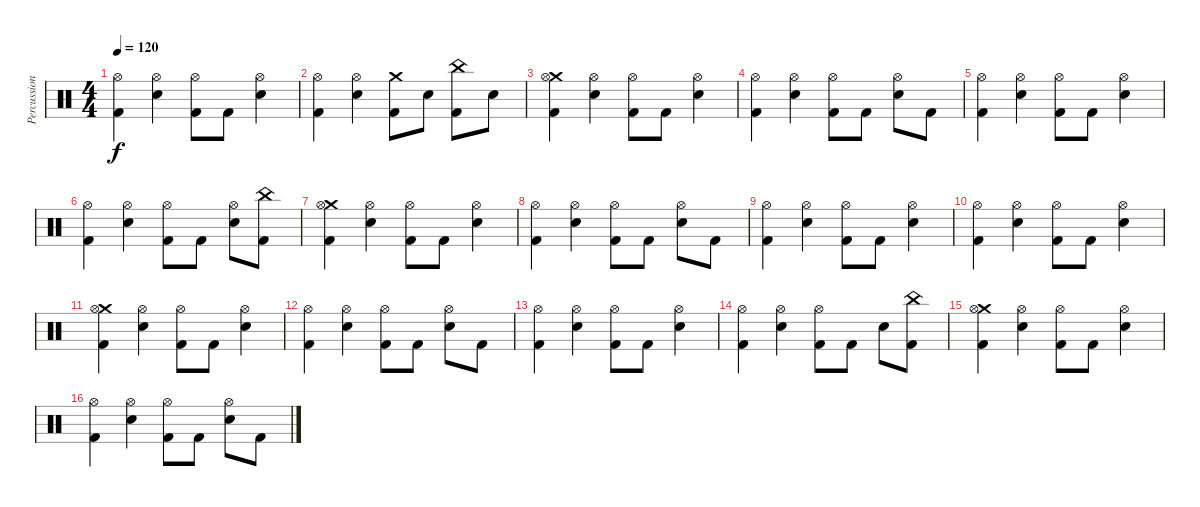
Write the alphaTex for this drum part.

\track ("Percussion" "Percussion") {instrument percussion}
\staff {score}
\articulation defaults
\ts (4 4)
\tempo 120
\clef neutral
\ks c
("Hi-Hat (open)" "Kick (hit) 2").4{dy f} ("Hi-Hat (open)" "Snare (hit) 2").4 ("Hi-Hat (open)" "Kick (hit) 2").8 "Kick (hit) 2".8 ("Hi-Hat (open)" "Snare (hit) 2").4 |
("Hi-Hat (open)" "Kick (hit) 2").4 ("Hi-Hat (open)" "Snare (hit) 2").4 ("Crash medium (hit)" "Kick (hit) 2").8 "Snare (hit) 2".8 ("China (hit)" "Kick (hit) 2").8 "Snare (hit) 2".8 |
("Crash medium (hit)" "Hi-Hat (open)" "Kick (hit) 2").4 ("Hi-Hat (open)" "Snare (hit) 2").4 ("Hi-Hat (open)" "Kick (hit) 2").8 "Kick (hit) 2".8 ("Hi-Hat (open)" "Snare (hit) 2").4 |
("Hi-Hat (open)" "Kick (hit) 2").4 ("Hi-Hat (open)" "Snare (hit) 2").4 ("Hi-Hat (open)" "Kick (hit) 2").8 "Kick (hit) 2".8 ("Hi-Hat (open)" "Snare (hit) 2").8 "Kick (hit) 2".8 |
("Hi-Hat (open)" "Kick (hit) 2").4 ("Hi-Hat (open)" "Snare (hit) 2").4 ("Hi-Hat (open)" "Kick (hit) 2").8 "Kick (hit) 2".8 ("Hi-Hat (open)" "Snare (hit) 2").4 |
("Hi-Hat (open)" "Kick (hit) 2").4 ("Hi-Hat (open)" "Snare (hit) 2").4 ("Hi-Hat (open)" "Kick (hit) 2").8 "Kick (hit) 2".8 ("Hi-Hat (open)" "Snare (hit) 2").8 ("China (hit)" "Kick (hit) 2").8 |
("Crash medium (hit)" "Hi-Hat (open)" "Kick (hit) 2").4 ("Hi-Hat (open)" "Snare (hit) 2").4 ("Hi-Hat (open)" "Kick (hit) 2").8 "Kick (hit) 2".8 ("Hi-Hat (open)" "Snare (hit) 2").4 |
("Hi-Hat (open)" "Kick (hit) 2").4 ("Hi-Hat (open)" "Snare (hit) 2").4 ("Hi-Hat (open)" "Kick (hit) 2").8 "Kick (hit) 2".8 ("Hi-Hat (open)" "Snare (hit) 2").8 "Kick (hit) 2".8 |
("Hi-Hat (open)" "Kick (hit) 2").4 ("Hi-Hat (open)" "Snare (hit) 2").4 ("Hi-Hat (open)" "Kick (hit) 2").8 "Kick (hit) 2".8 ("Hi-Hat (open)" "Snare (hit) 2").4 |
("Hi-Hat (open)" "Kick (hit) 2").4 ("Hi-Hat (open)" "Snare (hit) 2").4 ("Hi-Hat (open)" "Kick (hit) 2").8 "Kick (hit) 2".8 ("Hi-Hat (open)" "Snare (hit) 2").4 |
("Crash medium (hit)" "Hi-Hat (open)" "Kick (hit) 2").4 ("Hi-Hat (open)" "Snare (hit) 2").4 ("Hi-Hat (open)" "Kick (hit) 2").8 "Kick (hit) 2".8 ("Hi-Hat (open)" "Snare (hit) 2").4 |
("Hi-Hat (open)" "Kick (hit) 2").4 ("Hi-Hat (open)" "Snare (hit) 2").4 ("Hi-Hat (open)" "Kick (hit) 2").8 "Kick (hit) 2".8 ("Hi-Hat (open)" "Snare (hit) 2").8 "Kick (hit) 2".8 |
("Hi-Hat (open)" "Kick (hit) 2").4 ("Hi-Hat (open)" "Snare (hit) 2").4 ("Hi-Hat (open)" "Kick (hit) 2").8 "Kick (hit) 2".8 ("Hi-Hat (open)" "Snare (hit) 2").4 |
("Hi-Hat (open)" "Kick (hit) 2").4 ("Hi-Hat (open)" "Snare (hit) 2").4 ("Hi-Hat (open)" "Kick (hit) 2").8 "Kick (hit) 2".8 "Snare (hit) 2".8 ("China (hit)" "Kick (hit) 2").8 |
("Crash medium (hit)" "Hi-Hat (open)" "Kick (hit) 2").4 ("Hi-Hat (open)" "Snare (hit) 2").4 ("Hi-Hat (open)" "Kick (hit) 2").8 "Kick (hit) 2".8 ("Hi-Hat (open)" "Snare (hit) 2").4 |
("Hi-Hat (open)" "Kick (hit) 2").4 ("Hi-Hat (open)" "Snare (hit) 2").4 ("Hi-Hat (open)" "Kick (hit) 2").8 "Kick (hit) 2".8 ("Hi-Hat (open)" "Snare (hit) 2").8 "Kick (hit) 2".8
